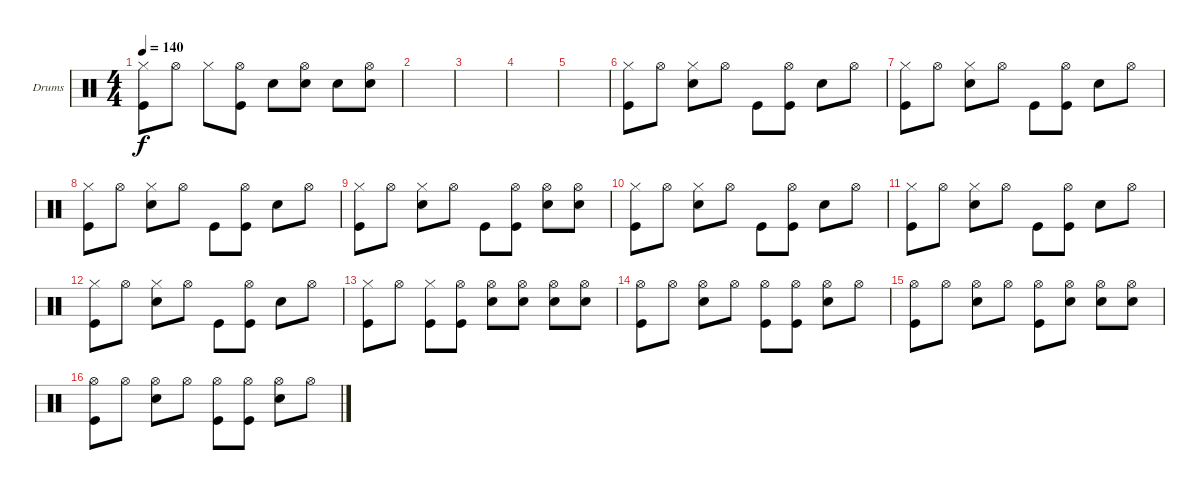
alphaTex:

\defaultSystemsLayout 4
\bracketExtendMode groupsimilarinstruments
\firstSystemTrackNameOrientation horizontal
\otherSystemsTrackNameOrientation horizontal
\track ("Drumkit" "Drums") {instrument percussion}
\staff {score}
\articulation defaults
\ts (4 4)
\tempo 140
\clef neutral
\ks c
("Hi-Hat (closed)" "Kick (hit)").8{dy f} "Hi-Hat (open)".8 "Hi-Hat (closed)".8 ("Hi-Hat (open)" "Kick (hit)").8 "Snare (hit) 2".8 ("Hi-Hat (open)" "Snare (hit) 2").8 "Snare (hit) 2".8 ("Hi-Hat (open)" "Snare (hit) 2").8 |
|
|
|
|
("Hi-Hat (closed)" "Kick (hit)").8 "Hi-Hat (open)".8 ("Hi-Hat (closed)" "Snare (hit) 2").8 "Hi-Hat (open)".8 "Kick (hit)".8 ("Kick (hit)" "Hi-Hat (open)").8 "Snare (hit) 2".8 "Hi-Hat (open)".8 |
("Hi-Hat (closed)" "Kick (hit)").8 "Hi-Hat (open)".8 ("Hi-Hat (closed)" "Snare (hit) 2").8 "Hi-Hat (open)".8 "Kick (hit)".8 ("Kick (hit)" "Hi-Hat (open)").8 "Snare (hit) 2".8 "Hi-Hat (open)".8 |
("Hi-Hat (closed)" "Kick (hit)").8 "Hi-Hat (open)".8 ("Hi-Hat (closed)" "Snare (hit) 2").8 "Hi-Hat (open)".8 "Kick (hit)".8 ("Kick (hit)" "Hi-Hat (open)").8 "Snare (hit) 2".8 "Hi-Hat (open)".8 |
("Hi-Hat (closed)" "Kick (hit)").8 "Hi-Hat (open)".8 ("Hi-Hat (closed)" "Snare (hit) 2").8 "Hi-Hat (open)".8 "Kick (hit)".8 ("Kick (hit)" "Hi-Hat (open)").8 ("Snare (hit) 2" "Hi-Hat (open)").8 ("Snare (hit) 2" "Hi-Hat (open)").8 |
("Hi-Hat (closed)" "Kick (hit)").8 "Hi-Hat (open)".8 ("Hi-Hat (closed)" "Snare (hit) 2").8 "Hi-Hat (open)".8 "Kick (hit)".8 ("Kick (hit)" "Hi-Hat (open)").8 "Snare (hit) 2".8 "Hi-Hat (open)".8 |
("Hi-Hat (closed)" "Kick (hit)").8 "Hi-Hat (open)".8 ("Hi-Hat (closed)" "Snare (hit) 2").8 "Hi-Hat (open)".8 "Kick (hit)".8 ("Kick (hit)" "Hi-Hat (open)").8 "Snare (hit) 2".8 "Hi-Hat (open)".8 |
("Hi-Hat (closed)" "Kick (hit)").8 "Hi-Hat (open)".8 ("Hi-Hat (closed)" "Snare (hit) 2").8 "Hi-Hat (open)".8 "Kick (hit)".8 ("Kick (hit)" "Hi-Hat (open)").8 "Snare (hit) 2".8 "Hi-Hat (open)".8 |
("Hi-Hat (closed)" "Kick (hit)").8 "Hi-Hat (open)".8 ("Hi-Hat (closed)" "Kick (hit)").8 ("Hi-Hat (open)" "Kick (hit)").8 ("Snare (hit) 2" "Hi-Hat (open)").8 ("Hi-Hat (open)" "Snare (hit) 2").8 ("Snare (hit) 2" "Hi-Hat (open)").8 ("Hi-Hat (open)" "Snare (hit) 2").8 |
("Hi-Hat (open)" "Kick (hit)").8 "Hi-Hat (open)".8 ("Hi-Hat (open)" "Snare (hit) 2").8 "Hi-Hat (open)".8 ("Kick (hit)" "Hi-Hat (open)").8 ("Kick (hit)" "Hi-Hat (open)").8 ("Snare (hit) 2" "Hi-Hat (open)").8 "Hi-Hat (open)".8 |
("Hi-Hat (open)" "Kick (hit)").8 "Hi-Hat (open)".8 ("Hi-Hat (open)" "Snare (hit) 2").8 "Hi-Hat (open)".8 ("Hi-Hat (open)" "Kick (hit)").8 ("Hi-Hat (open)" "Snare (hit) 2").8 ("Snare (hit) 2" "Hi-Hat (open)").8 ("Hi-Hat (open)" "Snare (hit) 2").8 |
("Hi-Hat (open)" "Kick (hit)").8 "Hi-Hat (open)".8 ("Hi-Hat (open)" "Snare (hit) 2").8 "Hi-Hat (open)".8 ("Kick (hit)" "Hi-Hat (open)").8 ("Kick (hit)" "Hi-Hat (open)").8 ("Snare (hit) 2" "Hi-Hat (open)").8 "Hi-Hat (open)".8
